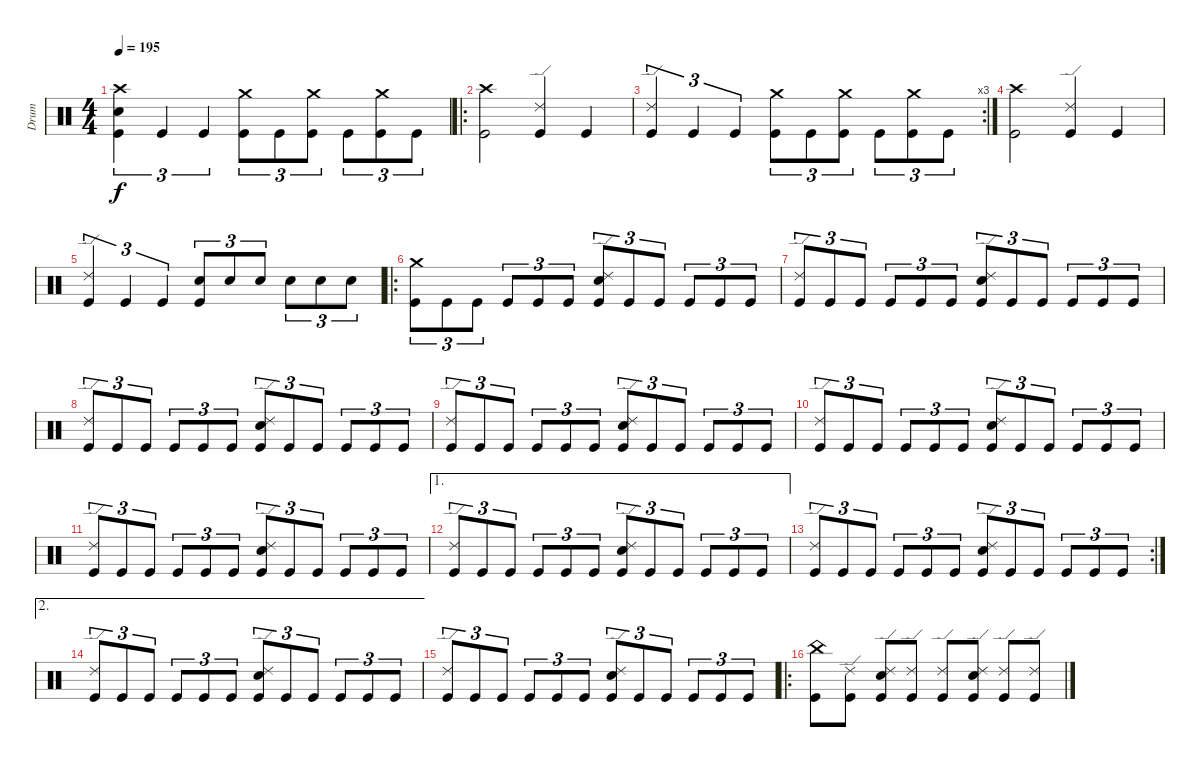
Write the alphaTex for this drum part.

\track ("Drum" "Drum") {instrument percussion}
\staff {score}
\articulation defaults
\ts (4 4)
\tempo 195
\clef neutral
\ks c
("Crash high (hit)" "Snare (hit) 2" "Kick (hit)").4{tu (3 2) dy f} "Kick (hit)".4{tu (3 2)} "Kick (hit)".4{tu (3 2)} ("Crash medium (hit)" "Kick (hit)").8{tu (3 2)} "Kick (hit)".8{tu (3 2)} ("Crash medium (hit)" "Kick (hit)").8{tu (3 2)} "Kick (hit)".8{tu (3 2)} ("Crash medium (hit)" "Kick (hit)").8{tu (3 2)} "Kick (hit)".8{tu (3 2)} |
\ro
("Crash high (hit)" "Kick (hit)").2 ("Ride (edge) 2" "Kick (hit)").4 "Kick (hit)".4 |
\rc 3
("Ride (edge) 2" "Kick (hit)").4{tu (3 2)} "Kick (hit)".4{tu (3 2)} "Kick (hit)".4{tu (3 2)} ("Crash medium (hit)" "Kick (hit)").8{tu (3 2)} "Kick (hit)".8{tu (3 2)} ("Crash medium (hit)" "Kick (hit)").8{tu (3 2)} "Kick (hit)".8{tu (3 2)} ("Crash medium (hit)" "Kick (hit)").8{tu (3 2)} "Kick (hit)".8{tu (3 2)} |
("Crash high (hit)" "Kick (hit)").2 ("Ride (edge) 2" "Kick (hit)").4 "Kick (hit)".4 |
("Ride (edge) 2" "Kick (hit)").4{tu (3 2)} "Kick (hit)".4{tu (3 2)} "Kick (hit)".4{tu (3 2)} ("Snare (hit) 2" "Kick (hit)").8{tu (3 2)} "Snare (hit) 2".8{tu (3 2)} "Snare (hit) 2".8{tu (3 2)} "Snare (hit) 2".8{tu (3 2)} "Snare (hit) 2".8{tu (3 2)} "Snare (hit) 2".8{tu (3 2)} |
\ro
("Crash medium (hit)" "Kick (hit)").8{tu (3 2)} "Kick (hit)".8{tu (3 2)} "Kick (hit)".8{tu (3 2)} "Kick (hit)".8{tu (3 2)} "Kick (hit)".8{tu (3 2)} "Kick (hit)".8{tu (3 2)} ("Ride (edge) 2" "Snare (hit) 2" "Kick (hit)").8{tu (3 2)} "Kick (hit)".8{tu (3 2)} "Kick (hit)".8{tu (3 2)} "Kick (hit)".8{tu (3 2)} "Kick (hit)".8{tu (3 2)} "Kick (hit)".8{tu (3 2)} |
("Ride (edge) 2" "Kick (hit)").8{tu (3 2)} "Kick (hit)".8{tu (3 2)} "Kick (hit)".8{tu (3 2)} "Kick (hit)".8{tu (3 2)} "Kick (hit)".8{tu (3 2)} "Kick (hit)".8{tu (3 2)} ("Ride (edge) 2" "Snare (hit) 2" "Kick (hit)").8{tu (3 2)} "Kick (hit)".8{tu (3 2)} "Kick (hit)".8{tu (3 2)} "Kick (hit)".8{tu (3 2)} "Kick (hit)".8{tu (3 2)} "Kick (hit)".8{tu (3 2)} |
("Ride (edge) 2" "Kick (hit)").8{tu (3 2)} "Kick (hit)".8{tu (3 2)} "Kick (hit)".8{tu (3 2)} "Kick (hit)".8{tu (3 2)} "Kick (hit)".8{tu (3 2)} "Kick (hit)".8{tu (3 2)} ("Ride (edge) 2" "Snare (hit) 2" "Kick (hit)").8{tu (3 2)} "Kick (hit)".8{tu (3 2)} "Kick (hit)".8{tu (3 2)} "Kick (hit)".8{tu (3 2)} "Kick (hit)".8{tu (3 2)} "Kick (hit)".8{tu (3 2)} |
("Ride (edge) 2" "Kick (hit)").8{tu (3 2)} "Kick (hit)".8{tu (3 2)} "Kick (hit)".8{tu (3 2)} "Kick (hit)".8{tu (3 2)} "Kick (hit)".8{tu (3 2)} "Kick (hit)".8{tu (3 2)} ("Ride (edge) 2" "Snare (hit) 2" "Kick (hit)").8{tu (3 2)} "Kick (hit)".8{tu (3 2)} "Kick (hit)".8{tu (3 2)} "Kick (hit)".8{tu (3 2)} "Kick (hit)".8{tu (3 2)} "Kick (hit)".8{tu (3 2)} |
("Ride (edge) 2" "Kick (hit)").8{tu (3 2)} "Kick (hit)".8{tu (3 2)} "Kick (hit)".8{tu (3 2)} "Kick (hit)".8{tu (3 2)} "Kick (hit)".8{tu (3 2)} "Kick (hit)".8{tu (3 2)} ("Ride (edge) 2" "Snare (hit) 2" "Kick (hit)").8{tu (3 2)} "Kick (hit)".8{tu (3 2)} "Kick (hit)".8{tu (3 2)} "Kick (hit)".8{tu (3 2)} "Kick (hit)".8{tu (3 2)} "Kick (hit)".8{tu (3 2)} |
("Ride (edge) 2" "Kick (hit)").8{tu (3 2)} "Kick (hit)".8{tu (3 2)} "Kick (hit)".8{tu (3 2)} "Kick (hit)".8{tu (3 2)} "Kick (hit)".8{tu (3 2)} "Kick (hit)".8{tu (3 2)} ("Ride (edge) 2" "Snare (hit) 2" "Kick (hit)").8{tu (3 2)} "Kick (hit)".8{tu (3 2)} "Kick (hit)".8{tu (3 2)} "Kick (hit)".8{tu (3 2)} "Kick (hit)".8{tu (3 2)} "Kick (hit)".8{tu (3 2)} |
\ae 1
("Ride (edge) 2" "Kick (hit)").8{tu (3 2)} "Kick (hit)".8{tu (3 2)} "Kick (hit)".8{tu (3 2)} "Kick (hit)".8{tu (3 2)} "Kick (hit)".8{tu (3 2)} "Kick (hit)".8{tu (3 2)} ("Ride (edge) 2" "Snare (hit) 2" "Kick (hit)").8{tu (3 2)} "Kick (hit)".8{tu (3 2)} "Kick (hit)".8{tu (3 2)} "Kick (hit)".8{tu (3 2)} "Kick (hit)".8{tu (3 2)} "Kick (hit)".8{tu (3 2)} |
\rc 2
("Ride (edge) 2" "Kick (hit)").8{tu (3 2)} "Kick (hit)".8{tu (3 2)} "Kick (hit)".8{tu (3 2)} "Kick (hit)".8{tu (3 2)} "Kick (hit)".8{tu (3 2)} "Kick (hit)".8{tu (3 2)} ("Ride (edge) 2" "Snare (hit) 2" "Kick (hit)").8{tu (3 2)} "Kick (hit)".8{tu (3 2)} "Kick (hit)".8{tu (3 2)} "Kick (hit)".8{tu (3 2)} "Kick (hit)".8{tu (3 2)} "Kick (hit)".8{tu (3 2)} |
\ae 2
("Ride (edge) 2" "Kick (hit)").8{tu (3 2)} "Kick (hit)".8{tu (3 2)} "Kick (hit)".8{tu (3 2)} "Kick (hit)".8{tu (3 2)} "Kick (hit)".8{tu (3 2)} "Kick (hit)".8{tu (3 2)} ("Ride (edge) 2" "Snare (hit) 2" "Kick (hit)").8{tu (3 2)} "Kick (hit)".8{tu (3 2)} "Kick (hit)".8{tu (3 2)} "Kick (hit)".8{tu (3 2)} "Kick (hit)".8{tu (3 2)} "Kick (hit)".8{tu (3 2)} |
("Ride (edge) 2" "Kick (hit)").8{tu (3 2)} "Kick (hit)".8{tu (3 2)} "Kick (hit)".8{tu (3 2)} "Kick (hit)".8{tu (3 2)} "Kick (hit)".8{tu (3 2)} "Kick (hit)".8{tu (3 2)} ("Ride (edge) 2" "Snare (hit) 2" "Kick (hit)").8{tu (3 2)} "Kick (hit)".8{tu (3 2)} "Kick (hit)".8{tu (3 2)} "Kick (hit)".8{tu (3 2)} "Kick (hit)".8{tu (3 2)} "Kick (hit)".8{tu (3 2)} |
\ro
("China (hit)" "Kick (hit)").8 ("Ride (edge) 2" "Kick (hit)").8 ("Ride (edge) 2" "Snare (hit) 2" "Kick (hit)").8 ("Ride (edge) 2" "Kick (hit)").8 ("Ride (edge) 2" "Kick (hit)").8 ("Ride (edge) 2" "Snare (hit) 2" "Kick (hit)").8 ("Ride (edge) 2" "Kick (hit)").8 ("Ride (edge) 2" "Kick (hit)").8
